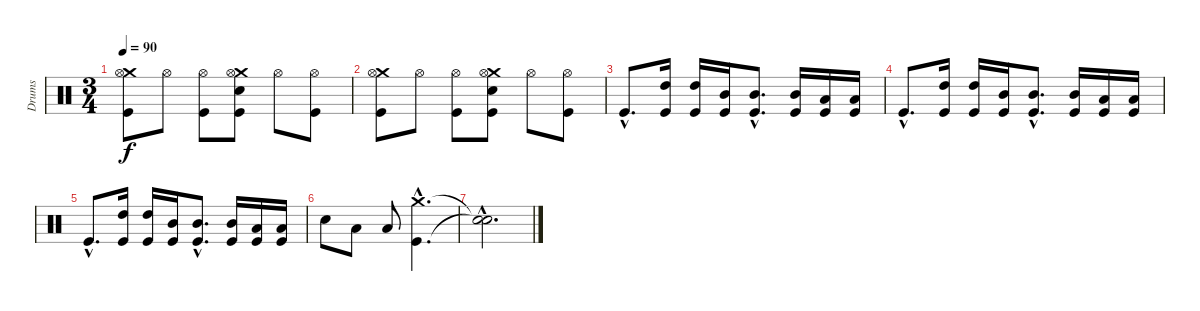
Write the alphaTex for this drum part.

\track ("Drums" "Drums") {instrument percussion}
\staff {score}
\articulation defaults
\ts (3 4)
\tempo 90
\clef neutral
\ks c
("Crash medium (hit)" "Hi-Hat (open)" "Kick (hit)").8{dy f} "Hi-Hat (open)".8 ("Hi-Hat (open)" "Kick (hit)").8 ("Crash medium (hit)" "Hi-Hat (open)" "Snare (hit) 2" "Kick (hit)").8 "Hi-Hat (open)".8 ("Hi-Hat (open)" "Kick (hit)").8 |
("Crash medium (hit)" "Hi-Hat (open)" "Kick (hit)").8 "Hi-Hat (open)".8 ("Hi-Hat (open)" "Kick (hit)").8 ("Crash medium (hit)" "Hi-Hat (open)" "Snare (hit) 2" "Kick (hit)").8 "Hi-Hat (open)".8 ("Hi-Hat (open)" "Kick (hit)").8 |
"Kick (hit)"{hac}.8{d} ("High Tom (hit)" "Kick (hit)").16 ("High Tom (hit)" "Kick (hit)").16 ("Mid Tom (hit)" "Kick (hit)").16 ("Mid Tom (hit)"{hac} "Kick (hit)"{hac}).8{d} ("Mid Tom (hit)" "Kick (hit)").16 ("Low Tom (hit)" "Kick (hit)").16 ("Low Tom (hit)" "Kick (hit)").16 |
"Kick (hit)"{hac}.8{d} ("High Tom (hit)" "Kick (hit)").16 ("High Tom (hit)" "Kick (hit)").16 ("Mid Tom (hit)" "Kick (hit)").16 ("Mid Tom (hit)"{hac} "Kick (hit)"{hac}).8{d} ("Mid Tom (hit)" "Kick (hit)").16 ("Low Tom (hit)" "Kick (hit)").16 ("Low Tom (hit)" "Kick (hit)").16 |
"Kick (hit)"{hac}.8{d} ("High Tom (hit)" "Kick (hit)").16 ("High Tom (hit)" "Kick (hit)").16 ("Mid Tom (hit)" "Kick (hit)").16 ("Mid Tom (hit)"{hac} "Kick (hit)"{hac}).8{d} ("Mid Tom (hit)" "Kick (hit)").16 ("Low Tom (hit)" "Kick (hit)").16 ("Low Tom (hit)" "Kick (hit)").16 |
"Snare (hit) 2".8 "Low Tom (hit)".8 "Low Tom (hit)".8 ("Crash medium (hit)"{hac} "Kick (hit)"{hac}).4{d} |
("Snare (hit)"{hac t} "Snare (hit)"{hac t}).2{d}
